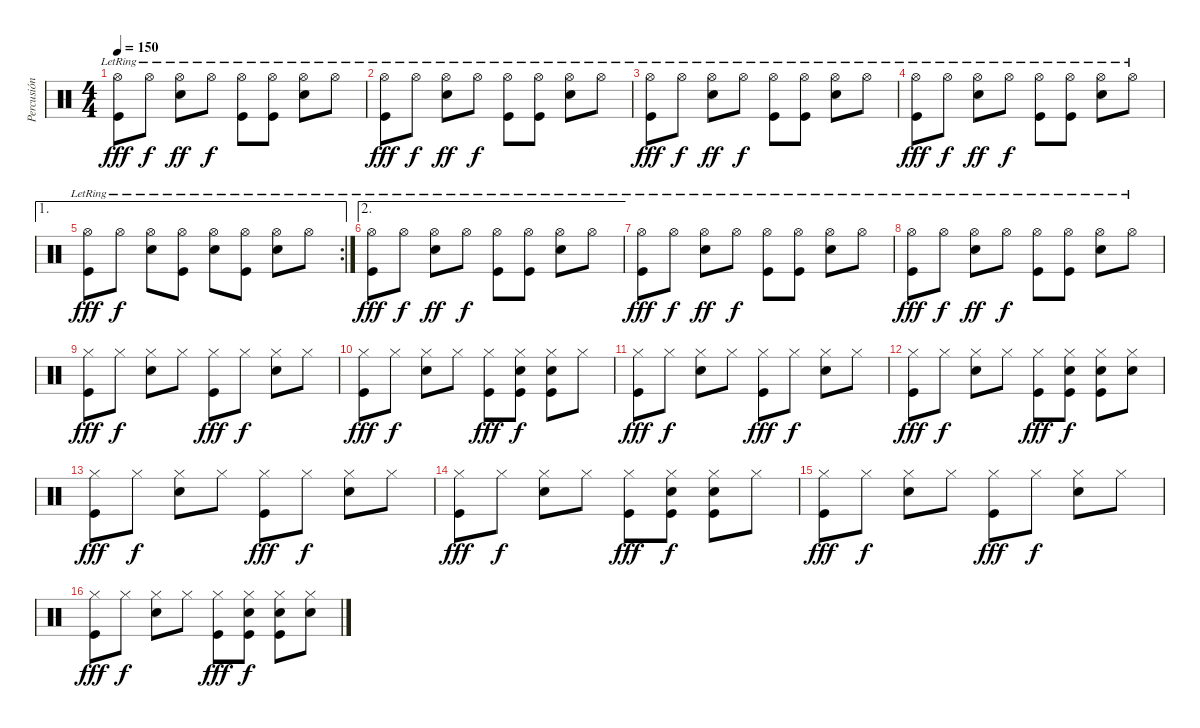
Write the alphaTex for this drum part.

\track ("Percusión" "Percusión") {instrument percussion}
\staff {score}
\articulation defaults
\ts (4 4)
\tempo 150
\clef neutral
\ks c
("Kick (hit)" "Hi-Hat (open)"{lr}).8{dy fff} "Hi-Hat (open)"{lr}.8{dy f} ("Snare (hit) 2" "Hi-Hat (open)"{lr}).8{dy ff} "Hi-Hat (open)"{lr}.8{dy f} ("Kick (hit)" "Hi-Hat (open)"{lr}).8 ("Kick (hit)" "Hi-Hat (open)"{lr}).8 ("Snare (hit) 2" "Hi-Hat (open)"{lr}).8 "Hi-Hat (open)"{lr}.8 |
("Kick (hit)" "Hi-Hat (open)"{lr}).8{dy fff} "Hi-Hat (open)"{lr}.8{dy f} ("Snare (hit) 2" "Hi-Hat (open)"{lr}).8{dy ff} "Hi-Hat (open)"{lr}.8{dy f} ("Kick (hit)" "Hi-Hat (open)"{lr}).8 ("Kick (hit)" "Hi-Hat (open)"{lr}).8 ("Snare (hit) 2" "Hi-Hat (open)"{lr}).8 "Hi-Hat (open)"{lr}.8 |
("Kick (hit)" "Hi-Hat (open)"{lr}).8{dy fff} "Hi-Hat (open)"{lr}.8{dy f} ("Snare (hit) 2" "Hi-Hat (open)"{lr}).8{dy ff} "Hi-Hat (open)"{lr}.8{dy f} ("Kick (hit)" "Hi-Hat (open)"{lr}).8 ("Kick (hit)" "Hi-Hat (open)"{lr}).8 ("Snare (hit) 2" "Hi-Hat (open)"{lr}).8 "Hi-Hat (open)"{lr}.8 |
("Kick (hit)" "Hi-Hat (open)"{lr}).8{dy fff} "Hi-Hat (open)"{lr}.8{dy f} ("Snare (hit) 2" "Hi-Hat (open)"{lr}).8{dy ff} "Hi-Hat (open)"{lr}.8{dy f} ("Kick (hit)" "Hi-Hat (open)"{lr}).8 ("Kick (hit)" "Hi-Hat (open)"{lr}).8 ("Snare (hit) 2" "Hi-Hat (open)"{lr}).8 "Hi-Hat (open)"{lr}.8 |
\ae 1
\rc 2
("Kick (hit)" "Hi-Hat (open)"{lr}).8{dy fff} "Hi-Hat (open)"{lr}.8{dy f} ("Snare (hit) 2" "Hi-Hat (open)"{lr}).8 ("Kick (hit)" "Hi-Hat (open)"{lr}).8 ("Snare (hit) 2" "Hi-Hat (open)"{lr}).8 ("Kick (hit)" "Hi-Hat (open)"{lr}).8 ("Snare (hit) 2" "Hi-Hat (open)"{lr}).8 "Hi-Hat (open)"{lr}.8 |
\ae 2
("Kick (hit)" "Hi-Hat (open)"{lr}).8{dy fff} "Hi-Hat (open)"{lr}.8{dy f} ("Snare (hit) 2" "Hi-Hat (open)"{lr}).8{dy ff} "Hi-Hat (open)"{lr}.8{dy f} ("Kick (hit)" "Hi-Hat (open)"{lr}).8 ("Kick (hit)" "Hi-Hat (open)"{lr}).8 ("Snare (hit) 2" "Hi-Hat (open)"{lr}).8 "Hi-Hat (open)"{lr}.8 |
("Kick (hit)" "Hi-Hat (open)"{lr}).8{dy fff} "Hi-Hat (open)"{lr}.8{dy f} ("Snare (hit) 2" "Hi-Hat (open)"{lr}).8{dy ff} "Hi-Hat (open)"{lr}.8{dy f} ("Kick (hit)" "Hi-Hat (open)"{lr}).8 ("Kick (hit)" "Hi-Hat (open)"{lr}).8 ("Snare (hit) 2" "Hi-Hat (open)"{lr}).8 "Hi-Hat (open)"{lr}.8 |
("Kick (hit)" "Hi-Hat (open)"{lr}).8{dy fff} "Hi-Hat (open)"{lr}.8{dy f} ("Snare (hit) 2" "Hi-Hat (open)"{lr}).8{dy ff} "Hi-Hat (open)"{lr}.8{dy f} ("Kick (hit)" "Hi-Hat (open)"{lr}).8 ("Kick (hit)" "Hi-Hat (open)"{lr}).8 ("Snare (hit) 2" "Hi-Hat (open)"{lr}).8 "Hi-Hat (open)"{lr}.8 |
("Kick (hit)" "Hi-Hat (closed)").8{dy fff} "Hi-Hat (closed)".8{dy f} ("Snare (hit) 2" "Hi-Hat (closed)").8 "Hi-Hat (closed)".8 ("Kick (hit)" "Hi-Hat (closed)").8{dy fff} "Hi-Hat (closed)".8{dy f} ("Snare (hit) 2" "Hi-Hat (closed)").8 "Hi-Hat (closed)".8 |
("Kick (hit)" "Hi-Hat (closed)").8{dy fff} "Hi-Hat (closed)".8{dy f} ("Snare (hit) 2" "Hi-Hat (closed)").8 "Hi-Hat (closed)".8 ("Kick (hit)" "Hi-Hat (closed)").8{dy fff} ("Snare (hit) 2" "Hi-Hat (closed)" "Kick (hit)").8{dy f} ("Snare (hit) 2" "Hi-Hat (closed)" "Kick (hit)").8 "Hi-Hat (closed)".8 |
("Kick (hit)" "Hi-Hat (closed)").8{dy fff} "Hi-Hat (closed)".8{dy f} ("Snare (hit) 2" "Hi-Hat (closed)").8 "Hi-Hat (closed)".8 ("Kick (hit)" "Hi-Hat (closed)").8{dy fff} "Hi-Hat (closed)".8{dy f} ("Snare (hit) 2" "Hi-Hat (closed)").8 "Hi-Hat (closed)".8 |
("Kick (hit)" "Hi-Hat (closed)").8{dy fff} "Hi-Hat (closed)".8{dy f} ("Snare (hit) 2" "Hi-Hat (closed)").8 "Hi-Hat (closed)".8 ("Kick (hit)" "Hi-Hat (closed)").8{dy fff} ("Snare (hit) 2" "Hi-Hat (closed)" "Kick (hit)").8{dy f} ("Snare (hit) 2" "Hi-Hat (closed)" "Kick (hit)").8 ("Snare (hit) 2" "Hi-Hat (closed)").8 |
("Kick (hit)" "Hi-Hat (closed)").8{dy fff} "Hi-Hat (closed)".8{dy f} ("Snare (hit) 2" "Hi-Hat (closed)").8 "Hi-Hat (closed)".8 ("Kick (hit)" "Hi-Hat (closed)").8{dy fff} "Hi-Hat (closed)".8{dy f} ("Snare (hit) 2" "Hi-Hat (closed)").8 "Hi-Hat (closed)".8 |
("Kick (hit)" "Hi-Hat (closed)").8{dy fff} "Hi-Hat (closed)".8{dy f} ("Snare (hit) 2" "Hi-Hat (closed)").8 "Hi-Hat (closed)".8 ("Kick (hit)" "Hi-Hat (closed)").8{dy fff} ("Snare (hit) 2" "Hi-Hat (closed)" "Kick (hit)").8{dy f} ("Snare (hit) 2" "Hi-Hat (closed)" "Kick (hit)").8 "Hi-Hat (closed)".8 |
("Kick (hit)" "Hi-Hat (closed)").8{dy fff} "Hi-Hat (closed)".8{dy f} ("Snare (hit) 2" "Hi-Hat (closed)").8 "Hi-Hat (closed)".8 ("Kick (hit)" "Hi-Hat (closed)").8{dy fff} "Hi-Hat (closed)".8{dy f} ("Snare (hit) 2" "Hi-Hat (closed)").8 "Hi-Hat (closed)".8 |
("Kick (hit)" "Hi-Hat (closed)").8{dy fff} "Hi-Hat (closed)".8{dy f} ("Snare (hit) 2" "Hi-Hat (closed)").8 "Hi-Hat (closed)".8 ("Kick (hit)" "Hi-Hat (closed)").8{dy fff} ("Snare (hit) 2" "Hi-Hat (closed)" "Kick (hit)").8{dy f} ("Snare (hit) 2" "Hi-Hat (closed)" "Kick (hit)").8 ("Snare (hit) 2" "Hi-Hat (closed)").8
